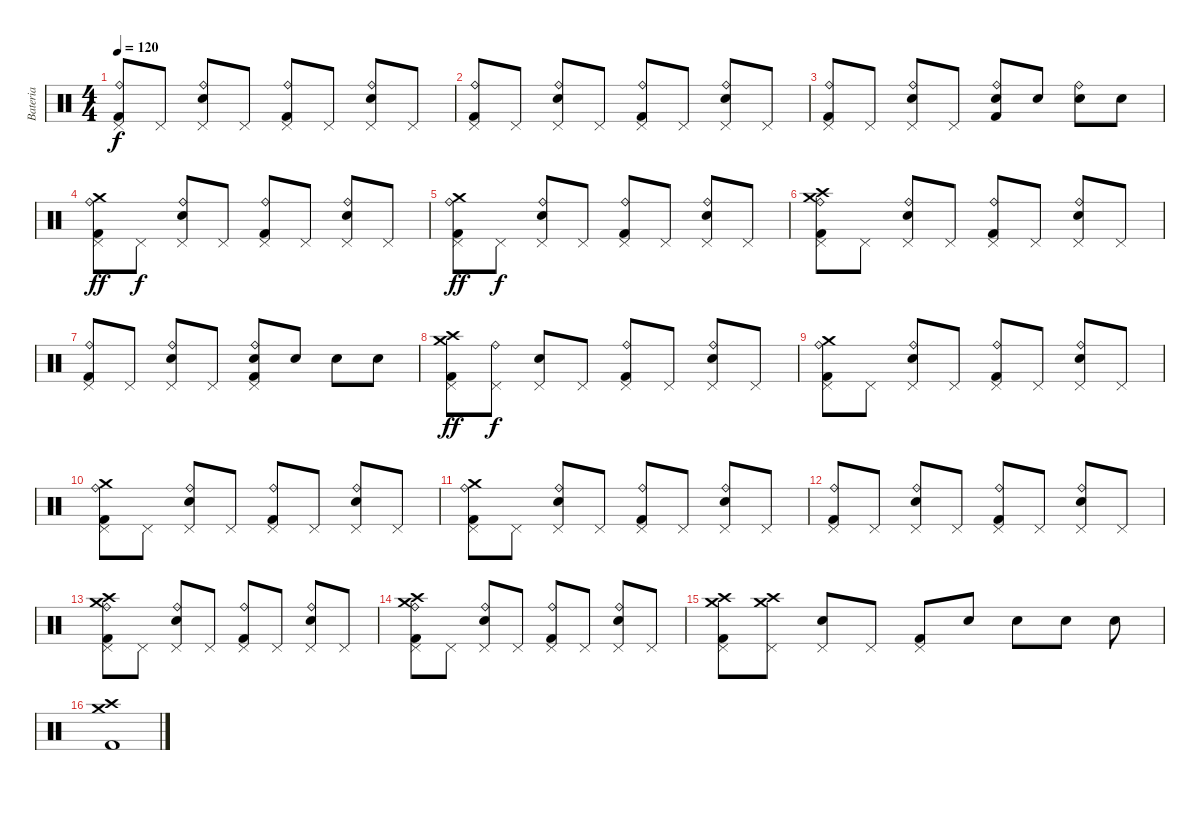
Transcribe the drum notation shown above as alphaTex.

\track ("Bateria" "Bateria") {instrument percussion}
\staff {score}
\articulation defaults
\ts (4 4)
\tempo 120
\clef neutral
\ks c
("Pedal Hi-Hat (hit)" "Kick (hit) 2" "Ride (bell)").8{dy f} "Pedal Hi-Hat (hit)".8 ("Pedal Hi-Hat (hit)" "Electric Snare (hit)" "Ride (bell)").8 "Pedal Hi-Hat (hit)".8 ("Pedal Hi-Hat (hit)" "Kick (hit) 2" "Ride (bell)").8 "Pedal Hi-Hat (hit)".8 ("Pedal Hi-Hat (hit)" "Electric Snare (hit)" "Ride (bell)").8 "Pedal Hi-Hat (hit)".8 |
("Pedal Hi-Hat (hit)" "Kick (hit) 2" "Ride (bell)").8 "Pedal Hi-Hat (hit)".8 ("Pedal Hi-Hat (hit)" "Electric Snare (hit)" "Ride (bell)").8 "Pedal Hi-Hat (hit)".8 ("Pedal Hi-Hat (hit)" "Kick (hit) 2" "Ride (bell)").8 "Pedal Hi-Hat (hit)".8 ("Pedal Hi-Hat (hit)" "Electric Snare (hit)" "Ride (bell)").8 "Pedal Hi-Hat (hit)".8 |
("Pedal Hi-Hat (hit)" "Kick (hit) 2" "Ride (bell)").8 "Pedal Hi-Hat (hit)".8 ("Pedal Hi-Hat (hit)" "Electric Snare (hit)" "Ride (bell)").8 "Pedal Hi-Hat (hit)".8 ("Electric Snare (hit)" "Kick (hit) 2" "Ride (bell)").8 "Electric Snare (hit)".8 ("Electric Snare (hit)" "Ride (bell)").8 "Electric Snare (hit)".8 |
("Pedal Hi-Hat (hit)" "Kick (hit) 2" "Crash medium (hit)" "Ride (bell)").8{dy ff} "Pedal Hi-Hat (hit)".8{dy f} ("Pedal Hi-Hat (hit)" "Electric Snare (hit)" "Ride (bell)").8 "Pedal Hi-Hat (hit)".8 ("Pedal Hi-Hat (hit)" "Kick (hit) 2" "Ride (bell)").8 "Pedal Hi-Hat (hit)".8 ("Pedal Hi-Hat (hit)" "Electric Snare (hit)" "Ride (bell)").8 "Pedal Hi-Hat (hit)".8 |
("Pedal Hi-Hat (hit)" "Kick (hit) 2" "Crash medium (hit)" "Ride (bell)").8{dy ff} "Pedal Hi-Hat (hit)".8{dy f} ("Pedal Hi-Hat (hit)" "Electric Snare (hit)" "Ride (bell)").8 "Pedal Hi-Hat (hit)".8 ("Pedal Hi-Hat (hit)" "Kick (hit) 2" "Ride (bell)").8 "Pedal Hi-Hat (hit)".8 ("Pedal Hi-Hat (hit)" "Electric Snare (hit)" "Ride (bell)").8 "Pedal Hi-Hat (hit)".8 |
("Pedal Hi-Hat (hit)" "Kick (hit) 2" "Crash medium (hit)" "Crash high (hit)" "Ride (bell)").8 "Pedal Hi-Hat (hit)".8 ("Pedal Hi-Hat (hit)" "Electric Snare (hit)" "Ride (bell)").8 "Pedal Hi-Hat (hit)".8 ("Pedal Hi-Hat (hit)" "Kick (hit) 2" "Ride (bell)").8 "Pedal Hi-Hat (hit)".8 ("Pedal Hi-Hat (hit)" "Electric Snare (hit)" "Ride (bell)").8 "Pedal Hi-Hat (hit)".8 |
("Pedal Hi-Hat (hit)" "Kick (hit) 2" "Ride (bell)").8 "Pedal Hi-Hat (hit)".8 ("Pedal Hi-Hat (hit)" "Electric Snare (hit)" "Ride (bell)").8 "Pedal Hi-Hat (hit)".8 ("Pedal Hi-Hat (hit)" "Electric Snare (hit)" "Kick (hit) 2" "Ride (bell)").8 "Electric Snare (hit)".8 "Electric Snare (hit)".8 "Electric Snare (hit)".8 |
("Pedal Hi-Hat (hit)" "Kick (hit) 2" "Crash medium (hit)" "Crash high (hit)").8{dy ff} ("Pedal Hi-Hat (hit)" "Ride (bell)").8{dy f} ("Pedal Hi-Hat (hit)" "Electric Snare (hit)").8 "Pedal Hi-Hat (hit)".8 ("Pedal Hi-Hat (hit)" "Kick (hit) 2" "Ride (bell)").8 "Pedal Hi-Hat (hit)".8 ("Pedal Hi-Hat (hit)" "Electric Snare (hit)" "Ride (bell)").8 "Pedal Hi-Hat (hit)".8 |
("Pedal Hi-Hat (hit)" "Kick (hit) 2" "Crash medium (hit)" "Ride (bell)").8 "Pedal Hi-Hat (hit)".8 ("Pedal Hi-Hat (hit)" "Electric Snare (hit)" "Ride (bell)").8 "Pedal Hi-Hat (hit)".8 ("Pedal Hi-Hat (hit)" "Kick (hit) 2" "Ride (bell)").8 "Pedal Hi-Hat (hit)".8 ("Pedal Hi-Hat (hit)" "Electric Snare (hit)" "Ride (bell)").8 "Pedal Hi-Hat (hit)".8 |
("Pedal Hi-Hat (hit)" "Kick (hit) 2" "Crash medium (hit)" "Ride (bell)").8 "Pedal Hi-Hat (hit)".8 ("Pedal Hi-Hat (hit)" "Electric Snare (hit)" "Ride (bell)").8 "Pedal Hi-Hat (hit)".8 ("Pedal Hi-Hat (hit)" "Kick (hit) 2" "Ride (bell)").8 "Pedal Hi-Hat (hit)".8 ("Pedal Hi-Hat (hit)" "Electric Snare (hit)" "Ride (bell)").8 "Pedal Hi-Hat (hit)".8 |
("Pedal Hi-Hat (hit)" "Kick (hit) 2" "Crash medium (hit)" "Ride (bell)").8 "Pedal Hi-Hat (hit)".8 ("Pedal Hi-Hat (hit)" "Electric Snare (hit)" "Ride (bell)").8 "Pedal Hi-Hat (hit)".8 ("Pedal Hi-Hat (hit)" "Kick (hit) 2" "Ride (bell)").8 "Pedal Hi-Hat (hit)".8 ("Pedal Hi-Hat (hit)" "Electric Snare (hit)" "Ride (bell)").8 "Pedal Hi-Hat (hit)".8 |
("Pedal Hi-Hat (hit)" "Kick (hit) 2" "Ride (bell)").8 "Pedal Hi-Hat (hit)".8 ("Pedal Hi-Hat (hit)" "Electric Snare (hit)" "Ride (bell)").8 "Pedal Hi-Hat (hit)".8 ("Pedal Hi-Hat (hit)" "Kick (hit) 2" "Ride (bell)").8 "Pedal Hi-Hat (hit)".8 ("Pedal Hi-Hat (hit)" "Electric Snare (hit)" "Ride (bell)").8 "Pedal Hi-Hat (hit)".8 |
("Pedal Hi-Hat (hit)" "Kick (hit) 2" "Crash medium (hit)" "Crash high (hit)" "Ride (bell)").8 "Pedal Hi-Hat (hit)".8 ("Pedal Hi-Hat (hit)" "Electric Snare (hit)" "Ride (bell)").8 "Pedal Hi-Hat (hit)".8 ("Pedal Hi-Hat (hit)" "Kick (hit) 2" "Ride (bell)").8 "Pedal Hi-Hat (hit)".8 ("Pedal Hi-Hat (hit)" "Electric Snare (hit)" "Ride (bell)").8 "Pedal Hi-Hat (hit)".8 |
("Pedal Hi-Hat (hit)" "Kick (hit) 2" "Crash medium (hit)" "Crash high (hit)" "Ride (bell)").8 "Pedal Hi-Hat (hit)".8 ("Pedal Hi-Hat (hit)" "Electric Snare (hit)" "Ride (bell)").8 "Pedal Hi-Hat (hit)".8 ("Pedal Hi-Hat (hit)" "Kick (hit) 2" "Ride (bell)").8 "Pedal Hi-Hat (hit)".8 ("Pedal Hi-Hat (hit)" "Electric Snare (hit)" "Ride (bell)").8 "Pedal Hi-Hat (hit)".8 |
("Pedal Hi-Hat (hit)" "Kick (hit) 2" "Crash medium (hit)" "Crash high (hit)").8 ("Pedal Hi-Hat (hit)" "Crash medium (hit)" "Crash high (hit)").8 ("Pedal Hi-Hat (hit)" "Electric Snare (hit)").8 "Pedal Hi-Hat (hit)".8 ("Pedal Hi-Hat (hit)" "Kick (hit) 2").8 "Electric Snare (hit)".8 "Electric Snare (hit)".8 "Electric Snare (hit)".8 "Electric Snare (hit)".8 |
("Crash high (hit)" "Crash medium (hit)" "Kick (hit) 2").1
